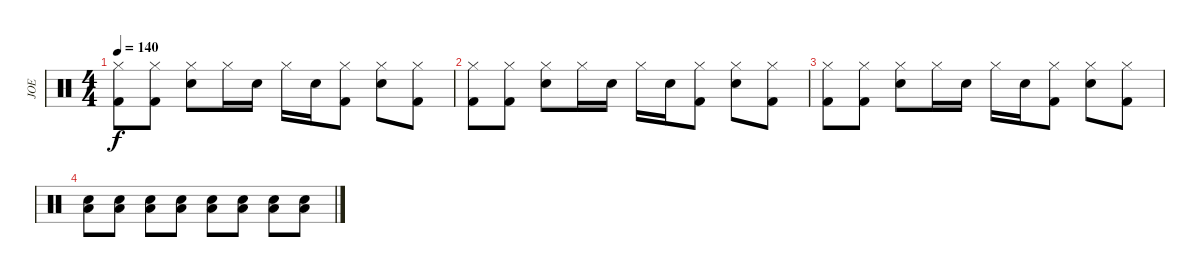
\track ("JOE" "JOE") {instrument percussion}
\staff {score}
\articulation defaults
\ts (4 4)
\tempo 140
\clef neutral
\ks c
("Hi-Hat (closed)" "Kick (hit) 2").8{dy f} ("Hi-Hat (closed)" "Kick (hit) 2").8 ("Hi-Hat (closed)" "Snare (hit) 2").8 "Hi-Hat (closed)".16 "Snare (hit) 2".16 "Hi-Hat (closed)".16 "Snare (hit) 2".16 ("Hi-Hat (closed)" "Kick (hit) 2").8 ("Hi-Hat (closed)" "Snare (hit) 2").8 ("Hi-Hat (closed)" "Kick (hit) 2").8 |
("Hi-Hat (closed)" "Kick (hit) 2").8 ("Hi-Hat (closed)" "Kick (hit) 2").8 ("Hi-Hat (closed)" "Snare (hit) 2").8 "Hi-Hat (closed)".16 "Snare (hit) 2".16 "Hi-Hat (closed)".16 "Snare (hit) 2".16 ("Hi-Hat (closed)" "Kick (hit) 2").8 ("Hi-Hat (closed)" "Snare (hit) 2").8 ("Hi-Hat (closed)" "Kick (hit) 2").8 |
("Hi-Hat (closed)" "Kick (hit) 2").8 ("Hi-Hat (closed)" "Kick (hit) 2").8 ("Hi-Hat (closed)" "Snare (hit) 2").8 "Hi-Hat (closed)".16 "Snare (hit) 2".16 "Hi-Hat (closed)".16 "Snare (hit) 2".16 ("Hi-Hat (closed)" "Kick (hit) 2").8 ("Hi-Hat (closed)" "Snare (hit) 2").8 ("Hi-Hat (closed)" "Kick (hit) 2").8 |
("Snare (hit) 2" "Low Floor Tom (hit)").8{volume 13} ("Snare (hit) 2" "Low Floor Tom (hit)").8 ("Snare (hit) 2" "Low Floor Tom (hit)").8 ("Snare (hit) 2" "Low Floor Tom (hit)").8 ("Snare (hit) 2" "Low Floor Tom (hit)").8 ("Snare (hit) 2" "Low Floor Tom (hit)").8 ("Snare (hit) 2" "Low Floor Tom (hit)").8 ("Snare (hit) 2" "Low Floor Tom (hit)").8
